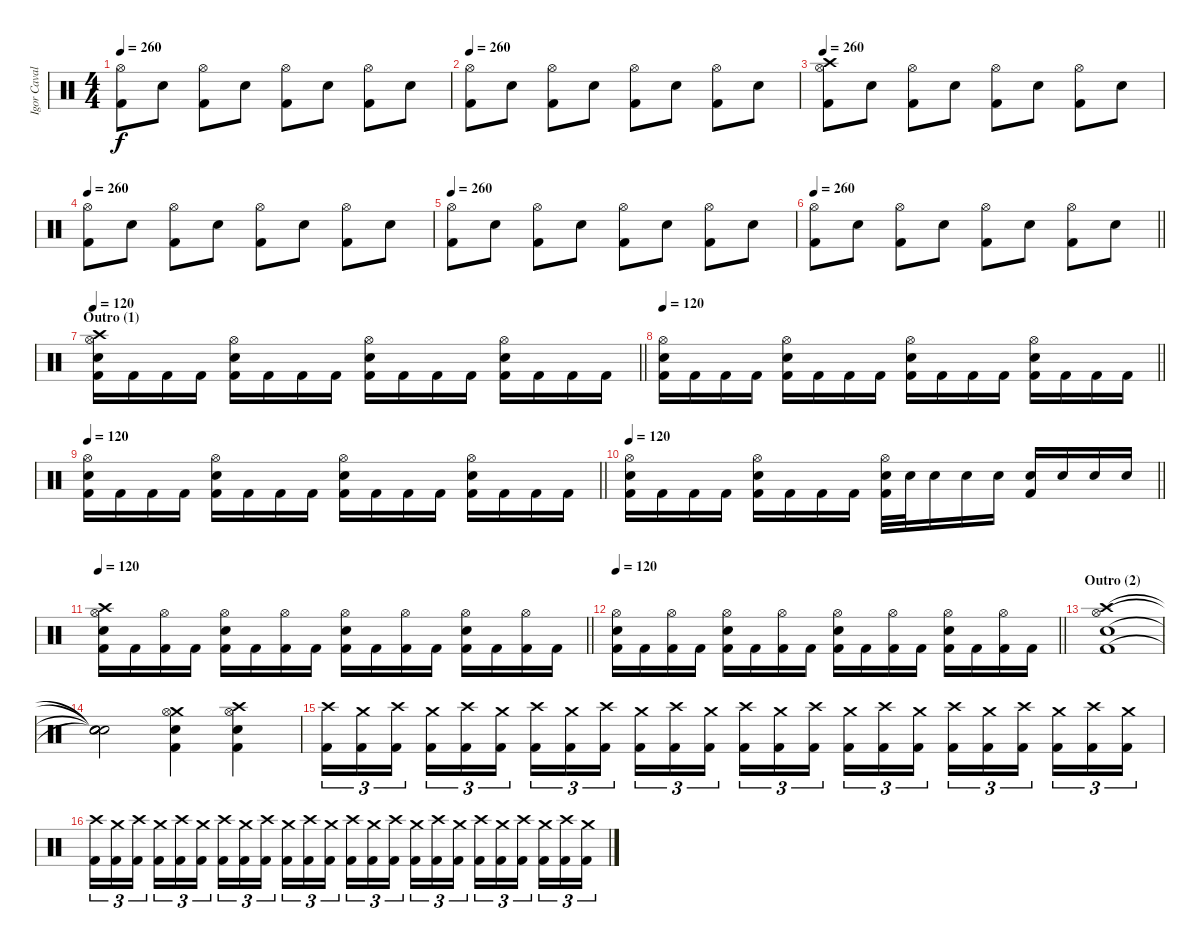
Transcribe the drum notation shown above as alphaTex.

\track ("Igor Cavalera" "Igor Caval") {instrument percussion}
\staff {score}
\articulation defaults
\ts (4 4)
\tempo 260
\clef neutral
\ks c
("Hi-Hat (open)" "Kick (hit) 2").8{dy f} "Electric Snare (hit)".8 ("Hi-Hat (open)" "Kick (hit) 2").8 "Electric Snare (hit)".8 ("Hi-Hat (open)" "Kick (hit) 2").8 "Electric Snare (hit)".8 ("Hi-Hat (open)" "Kick (hit) 2").8 "Electric Snare (hit)".8 |
\tempo 260
("Hi-Hat (open)" "Kick (hit) 2").8 "Electric Snare (hit)".8 ("Hi-Hat (open)" "Kick (hit) 2").8 "Electric Snare (hit)".8 ("Hi-Hat (open)" "Kick (hit) 2").8 "Electric Snare (hit)".8 ("Hi-Hat (open)" "Kick (hit) 2").8 "Electric Snare (hit)".8 |
\tempo 260
("Crash high (hit)" "Hi-Hat (open)" "Kick (hit) 2").8 "Electric Snare (hit)".8 ("Hi-Hat (open)" "Kick (hit) 2").8 "Electric Snare (hit)".8 ("Hi-Hat (open)" "Kick (hit) 2").8 "Electric Snare (hit)".8 ("Hi-Hat (open)" "Kick (hit) 2").8 "Electric Snare (hit)".8 |
\tempo 260
("Hi-Hat (open)" "Kick (hit) 2").8 "Electric Snare (hit)".8 ("Hi-Hat (open)" "Kick (hit) 2").8 "Electric Snare (hit)".8 ("Hi-Hat (open)" "Kick (hit) 2").8 "Electric Snare (hit)".8 ("Hi-Hat (open)" "Kick (hit) 2").8 "Electric Snare (hit)".8 |
\tempo 260
("Hi-Hat (open)" "Kick (hit) 2").8 "Electric Snare (hit)".8 ("Hi-Hat (open)" "Kick (hit) 2").8 "Electric Snare (hit)".8 ("Hi-Hat (open)" "Kick (hit) 2").8 "Electric Snare (hit)".8 ("Hi-Hat (open)" "Kick (hit) 2").8 "Electric Snare (hit)".8 |
\tempo 260
\barLineRight lightlight
("Hi-Hat (open)" "Kick (hit) 2").8 "Electric Snare (hit)".8 ("Hi-Hat (open)" "Kick (hit) 2").8 "Electric Snare (hit)".8 ("Hi-Hat (open)" "Kick (hit) 2").8 "Electric Snare (hit)".8 ("Hi-Hat (open)" "Kick (hit) 2").8 "Electric Snare (hit)".8 |
\section ("" "Outro (1)")
\tempo 120
\barLineRight lightlight
("Crash high (hit)" "Hi-Hat (open)" "Electric Snare (hit)" "Kick (hit) 2").16 "Kick (hit) 2".16 "Kick (hit) 2".16 "Kick (hit) 2".16 ("Hi-Hat (open)" "Electric Snare (hit)" "Kick (hit) 2").16 "Kick (hit) 2".16 "Kick (hit) 2".16 "Kick (hit) 2".16 ("Hi-Hat (open)" "Electric Snare (hit)" "Kick (hit) 2").16 "Kick (hit) 2".16 "Kick (hit) 2".16 "Kick (hit) 2".16 ("Hi-Hat (open)" "Electric Snare (hit)" "Kick (hit) 2").16 "Kick (hit) 2".16 "Kick (hit) 2".16 "Kick (hit) 2".16 |
\tempo 120
\barLineRight lightlight
("Hi-Hat (open)" "Electric Snare (hit)" "Kick (hit) 2").16 "Kick (hit) 2".16 "Kick (hit) 2".16 "Kick (hit) 2".16 ("Hi-Hat (open)" "Electric Snare (hit)" "Kick (hit) 2").16 "Kick (hit) 2".16 "Kick (hit) 2".16 "Kick (hit) 2".16 ("Hi-Hat (open)" "Electric Snare (hit)" "Kick (hit) 2").16 "Kick (hit) 2".16 "Kick (hit) 2".16 "Kick (hit) 2".16 ("Hi-Hat (open)" "Electric Snare (hit)" "Kick (hit) 2").16 "Kick (hit) 2".16 "Kick (hit) 2".16 "Kick (hit) 2".16 |
\tempo 120
\barLineRight lightlight
("Hi-Hat (open)" "Electric Snare (hit)" "Kick (hit) 2").16 "Kick (hit) 2".16 "Kick (hit) 2".16 "Kick (hit) 2".16 ("Hi-Hat (open)" "Electric Snare (hit)" "Kick (hit) 2").16 "Kick (hit) 2".16 "Kick (hit) 2".16 "Kick (hit) 2".16 ("Hi-Hat (open)" "Electric Snare (hit)" "Kick (hit) 2").16 "Kick (hit) 2".16 "Kick (hit) 2".16 "Kick (hit) 2".16 ("Hi-Hat (open)" "Electric Snare (hit)" "Kick (hit) 2").16 "Kick (hit) 2".16 "Kick (hit) 2".16 "Kick (hit) 2".16 |
\tempo 120
\barLineRight lightlight
("Hi-Hat (open)" "Electric Snare (hit)" "Kick (hit) 2").16 "Kick (hit) 2".16 "Kick (hit) 2".16 "Kick (hit) 2".16 ("Hi-Hat (open)" "Electric Snare (hit)" "Kick (hit) 2").16 "Kick (hit) 2".16 "Kick (hit) 2".16 "Kick (hit) 2".16 ("Hi-Hat (open)" "Electric Snare (hit)" "Kick (hit) 2").32 "Electric Snare (hit)".32 "Electric Snare (hit)".16 "Electric Snare (hit)".16 "Electric Snare (hit)".16 ("Electric Snare (hit)" "Kick (hit) 2").16 "Electric Snare (hit)".16 "Electric Snare (hit)".16 "Electric Snare (hit)".16 |
\tempo 120
\barLineRight lightlight
("Crash high (hit)" "Hi-Hat (open)" "Electric Snare (hit)" "Kick (hit) 2").16 "Kick (hit) 2".16 ("Hi-Hat (open)" "Kick (hit) 2").16 "Kick (hit) 2".16 ("Hi-Hat (open)" "Electric Snare (hit)" "Kick (hit) 2").16 "Kick (hit) 2".16 ("Hi-Hat (open)" "Kick (hit) 2").16 "Kick (hit) 2".16 ("Hi-Hat (open)" "Electric Snare (hit)" "Kick (hit) 2").16 "Kick (hit) 2".16 ("Hi-Hat (open)" "Kick (hit) 2").16 "Kick (hit) 2".16 ("Hi-Hat (open)" "Electric Snare (hit)" "Kick (hit) 2").16 "Kick (hit) 2".16 ("Hi-Hat (open)" "Kick (hit) 2").16 "Kick (hit) 2".16 |
\tempo 120
\barLineRight lightlight
("Hi-Hat (open)" "Electric Snare (hit)" "Kick (hit) 2").16 "Kick (hit) 2".16 ("Hi-Hat (open)" "Kick (hit) 2").16 "Kick (hit) 2".16 ("Hi-Hat (open)" "Electric Snare (hit)" "Kick (hit) 2").16 "Kick (hit) 2".16 ("Hi-Hat (open)" "Kick (hit) 2").16 "Kick (hit) 2".16 ("Hi-Hat (open)" "Electric Snare (hit)" "Kick (hit) 2").16 "Kick (hit) 2".16 ("Hi-Hat (open)" "Kick (hit) 2").16 "Kick (hit) 2".16 ("Hi-Hat (open)" "Electric Snare (hit)" "Kick (hit) 2").16 "Kick (hit) 2".16 ("Hi-Hat (open)" "Kick (hit) 2").16 "Kick (hit) 2".16 |
\section ("" "Outro (2)")
("Crash high (hit)" "Hi-Hat (open)" "Electric Snare (hit)" "Kick (hit) 2").1 |
("Snare (hit)"{t} "Snare (hit)"{t} "Snare (hit)"{t} "Snare (hit)"{t}).2 ("Crash medium (hit)" "Hi-Hat (open)" "Electric Snare (hit)" "Kick (hit) 2").4 ("Crash high (hit)" "Hi-Hat (open)" "Electric Snare (hit)" "Kick (hit) 2").4 |
("Crash high (hit)" "Kick (hit) 2").16{tu (3 2)} ("Crash medium (hit)" "Kick (hit) 2").16{tu (3 2)} ("Crash high (hit)" "Kick (hit) 2").16{tu (3 2)} ("Crash medium (hit)" "Kick (hit) 2").16{tu (3 2)} ("Crash high (hit)" "Kick (hit) 2").16{tu (3 2)} ("Crash medium (hit)" "Kick (hit) 2").16{tu (3 2)} ("Crash high (hit)" "Kick (hit) 2").16{tu (3 2)} ("Crash medium (hit)" "Kick (hit) 2").16{tu (3 2)} ("Crash high (hit)" "Kick (hit) 2").16{tu (3 2)} ("Crash medium (hit)" "Kick (hit) 2").16{tu (3 2)} ("Crash high (hit)" "Kick (hit) 2").16{tu (3 2)} ("Crash medium (hit)" "Kick (hit) 2").16{tu (3 2)} ("Crash high (hit)" "Kick (hit) 2").16{tu (3 2)} ("Crash medium (hit)" "Kick (hit) 2").16{tu (3 2)} ("Crash high (hit)" "Kick (hit) 2").16{tu (3 2)} ("Crash medium (hit)" "Kick (hit) 2").16{tu (3 2)} ("Crash high (hit)" "Kick (hit) 2").16{tu (3 2)} ("Crash medium (hit)" "Kick (hit) 2").16{tu (3 2)} ("Crash high (hit)" "Kick (hit) 2").16{tu (3 2)} ("Crash medium (hit)" "Kick (hit) 2").16{tu (3 2)} ("Crash high (hit)" "Kick (hit) 2").16{tu (3 2)} ("Crash medium (hit)" "Kick (hit) 2").16{tu (3 2)} ("Crash high (hit)" "Kick (hit) 2").16{tu (3 2)} ("Crash medium (hit)" "Kick (hit) 2").16{tu (3 2)} |
("Crash high (hit)" "Kick (hit) 2").16{tu (3 2)} ("Crash medium (hit)" "Kick (hit) 2").16{tu (3 2)} ("Crash high (hit)" "Kick (hit) 2").16{tu (3 2)} ("Crash medium (hit)" "Kick (hit) 2").16{tu (3 2)} ("Crash high (hit)" "Kick (hit) 2").16{tu (3 2)} ("Crash medium (hit)" "Kick (hit) 2").16{tu (3 2)} ("Crash high (hit)" "Kick (hit) 2").16{tu (3 2)} ("Crash medium (hit)" "Kick (hit) 2").16{tu (3 2)} ("Crash high (hit)" "Kick (hit) 2").16{tu (3 2)} ("Crash medium (hit)" "Kick (hit) 2").16{tu (3 2)} ("Crash high (hit)" "Kick (hit) 2").16{tu (3 2)} ("Crash medium (hit)" "Kick (hit) 2").16{tu (3 2)} ("Crash high (hit)" "Kick (hit) 2").16{tu (3 2)} ("Crash medium (hit)" "Kick (hit) 2").16{tu (3 2)} ("Crash high (hit)" "Kick (hit) 2").16{tu (3 2)} ("Crash medium (hit)" "Kick (hit) 2").16{tu (3 2)} ("Crash high (hit)" "Kick (hit) 2").16{tu (3 2)} ("Crash medium (hit)" "Kick (hit) 2").16{tu (3 2)} ("Crash high (hit)" "Kick (hit) 2").16{tu (3 2)} ("Crash medium (hit)" "Kick (hit) 2").16{tu (3 2)} ("Crash high (hit)" "Kick (hit) 2").16{tu (3 2)} ("Crash medium (hit)" "Kick (hit) 2").16{tu (3 2)} ("Crash high (hit)" "Kick (hit) 2").16{tu (3 2)} ("Crash medium (hit)" "Kick (hit) 2").16{tu (3 2)}
